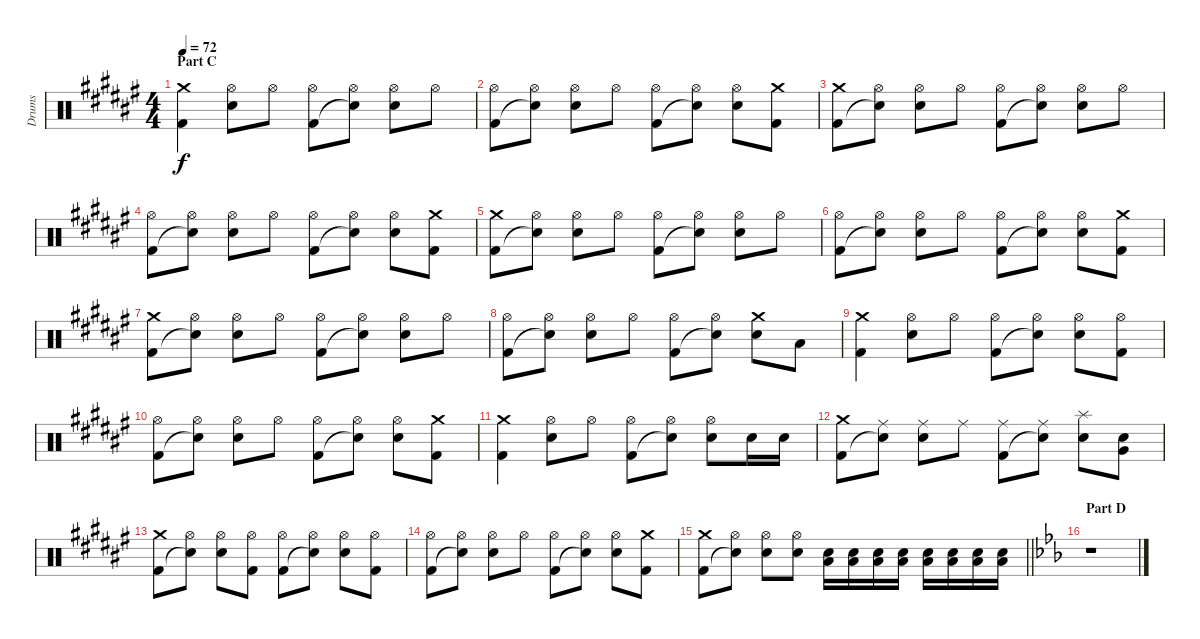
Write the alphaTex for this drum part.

\track ("Drums" "Drums") {instrument percussion}
\staff {score}
\articulation defaults
\ts (4 4)
\section ("" "Part C")
\tempo 72
\clef neutral
\ks f#
("Crash medium (hit)" "Kick (hit) 2").4{dy f} ("Hi-Hat (open)" "Electric Snare (hit)").8 "Hi-Hat (open)".8 ("Hi-Hat (open)" "Kick (hit) 2").8 ("Hi-Hat (open)" "Snare (hit)"{t}).8 ("Hi-Hat (open)" "Electric Snare (hit)").8 "Hi-Hat (open)".8 |
("Hi-Hat (open)" "Kick (hit) 2").8 ("Hi-Hat (open)" "Snare (hit)"{t}).8 ("Hi-Hat (open)" "Electric Snare (hit)").8 "Hi-Hat (open)".8 ("Hi-Hat (open)" "Kick (hit) 2").8 ("Hi-Hat (open)" "Snare (hit)"{t}).8 ("Hi-Hat (open)" "Electric Snare (hit)").8 ("Crash medium (hit)" "Kick (hit) 2").8 |
("Crash medium (hit)" "Kick (hit) 2").8 ("Hi-Hat (open)" "Snare (hit)"{t}).8 ("Hi-Hat (open)" "Electric Snare (hit)").8 "Hi-Hat (open)".8 ("Hi-Hat (open)" "Kick (hit) 2").8 ("Hi-Hat (open)" "Snare (hit)"{t}).8 ("Hi-Hat (open)" "Electric Snare (hit)").8 "Hi-Hat (open)".8 |
("Hi-Hat (open)" "Kick (hit) 2").8 ("Hi-Hat (open)" "Snare (hit)"{t}).8 ("Hi-Hat (open)" "Electric Snare (hit)").8 "Hi-Hat (open)".8 ("Hi-Hat (open)" "Kick (hit) 2").8 ("Hi-Hat (open)" "Snare (hit)"{t}).8 ("Hi-Hat (open)" "Electric Snare (hit)").8 ("Crash medium (hit)" "Kick (hit) 2").8 |
("Crash medium (hit)" "Kick (hit) 2").8 ("Hi-Hat (open)" "Snare (hit)"{t}).8 ("Hi-Hat (open)" "Electric Snare (hit)").8 "Hi-Hat (open)".8 ("Hi-Hat (open)" "Kick (hit) 2").8 ("Hi-Hat (open)" "Snare (hit)"{t}).8 ("Hi-Hat (open)" "Electric Snare (hit)").8 "Hi-Hat (open)".8 |
("Hi-Hat (open)" "Kick (hit) 2").8 ("Hi-Hat (open)" "Snare (hit)"{t}).8 ("Hi-Hat (open)" "Electric Snare (hit)").8 "Hi-Hat (open)".8 ("Hi-Hat (open)" "Kick (hit) 2").8 ("Hi-Hat (open)" "Snare (hit)"{t}).8 ("Hi-Hat (open)" "Electric Snare (hit)").8 ("Crash medium (hit)" "Kick (hit) 2").8 |
("Crash medium (hit)" "Kick (hit) 2").8 ("Hi-Hat (open)" "Snare (hit)"{t}).8 ("Hi-Hat (open)" "Electric Snare (hit)").8 "Hi-Hat (open)".8 ("Hi-Hat (open)" "Kick (hit) 2").8 ("Hi-Hat (open)" "Snare (hit)"{t}).8 ("Hi-Hat (open)" "Electric Snare (hit)").8 "Hi-Hat (open)".8 |
("Hi-Hat (open)" "Kick (hit) 2").8 ("Hi-Hat (open)" "Snare (hit)"{t}).8 ("Hi-Hat (open)" "Electric Snare (hit)").8 "Hi-Hat (open)".8 ("Hi-Hat (open)" "Kick (hit) 2").8 ("Hi-Hat (open)" "Snare (hit)"{t}).8 ("Crash medium (hit)" "Electric Snare (hit)").8 "Low Tom (hit)".8 |
("Crash medium (hit)" "Kick (hit) 2").4 ("Hi-Hat (open)" "Electric Snare (hit)").8 "Hi-Hat (open)".8 ("Hi-Hat (open)" "Kick (hit) 2").8 ("Hi-Hat (open)" "Snare (hit)"{t}).8 ("Hi-Hat (open)" "Electric Snare (hit)").8 ("Hi-Hat (open)" "Kick (hit) 2").8 |
("Hi-Hat (open)" "Kick (hit) 2").8 ("Hi-Hat (open)" "Snare (hit)"{t}).8 ("Hi-Hat (open)" "Electric Snare (hit)").8 "Hi-Hat (open)".8 ("Hi-Hat (open)" "Kick (hit) 2").8 ("Hi-Hat (open)" "Snare (hit)"{t}).8 ("Hi-Hat (open)" "Electric Snare (hit)").8 ("Crash medium (hit)" "Kick (hit) 2").8 |
("Crash medium (hit)" "Kick (hit) 2").4 ("Hi-Hat (open)" "Electric Snare (hit)").8 "Hi-Hat (open)".8 ("Hi-Hat (open)" "Kick (hit) 2").8 ("Hi-Hat (open)" "Snare (hit)"{t}).8 ("Hi-Hat (open)" "Electric Snare (hit)").8 "Electric Snare (hit)".16 "Electric Snare (hit)".16 |
("Crash medium (hit)" "Kick (hit) 2").8 ("Ride (middle)" "Snare (hit)"{t}).8 ("Ride (middle)" "Electric Snare (hit)").8 "Ride (middle)".8 ("Ride (middle)" "Kick (hit) 2").8 ("Ride (middle)" "Snare (hit)"{t}).8 ("Splash (hit)" "Electric Snare (hit)").8 ("Electric Snare (hit)" "Very Low Tom (hit)").8 |
("Crash medium (hit)" "Kick (hit) 2").8 ("Hi-Hat (open)" "Snare (hit)"{t}).8 ("Hi-Hat (open)" "Electric Snare (hit)").8 ("Hi-Hat (open)" "Kick (hit) 2").8 ("Hi-Hat (open)" "Kick (hit) 2").8 ("Hi-Hat (open)" "Snare (hit)"{t}).8 ("Hi-Hat (open)" "Electric Snare (hit)").8 ("Hi-Hat (open)" "Kick (hit) 2").8 |
("Hi-Hat (open)" "Kick (hit) 2").8 ("Hi-Hat (open)" "Snare (hit)"{t}).8 ("Hi-Hat (open)" "Electric Snare (hit)").8 "Hi-Hat (open)".8 ("Hi-Hat (open)" "Kick (hit) 2").8 ("Hi-Hat (open)" "Snare (hit)"{t}).8 ("Hi-Hat (open)" "Electric Snare (hit)").8 ("Crash medium (hit)" "Kick (hit) 2").8 |
\barLineRight lightlight
("Crash medium (hit)" "Kick (hit) 2").8 ("Hi-Hat (open)" "Snare (hit)"{t}).8 ("Hi-Hat (open)" "Electric Snare (hit)").8 ("Hi-Hat (open)" "Electric Snare (hit)").8 ("Electric Snare (hit)" "Low Floor Tom (hit)").16 ("Electric Snare (hit)" "Low Floor Tom (hit)").16 ("Electric Snare (hit)" "Low Floor Tom (hit)").16 ("Electric Snare (hit)" "Low Floor Tom (hit)").16 ("Electric Snare (hit)" "Low Floor Tom (hit)").16 ("Electric Snare (hit)" "Low Floor Tom (hit)").16 ("Electric Snare (hit)" "Low Floor Tom (hit)").16 ("Electric Snare (hit)" "Low Floor Tom (hit)").16 |
\section ("" "Part D")
\ks eb
r.1
